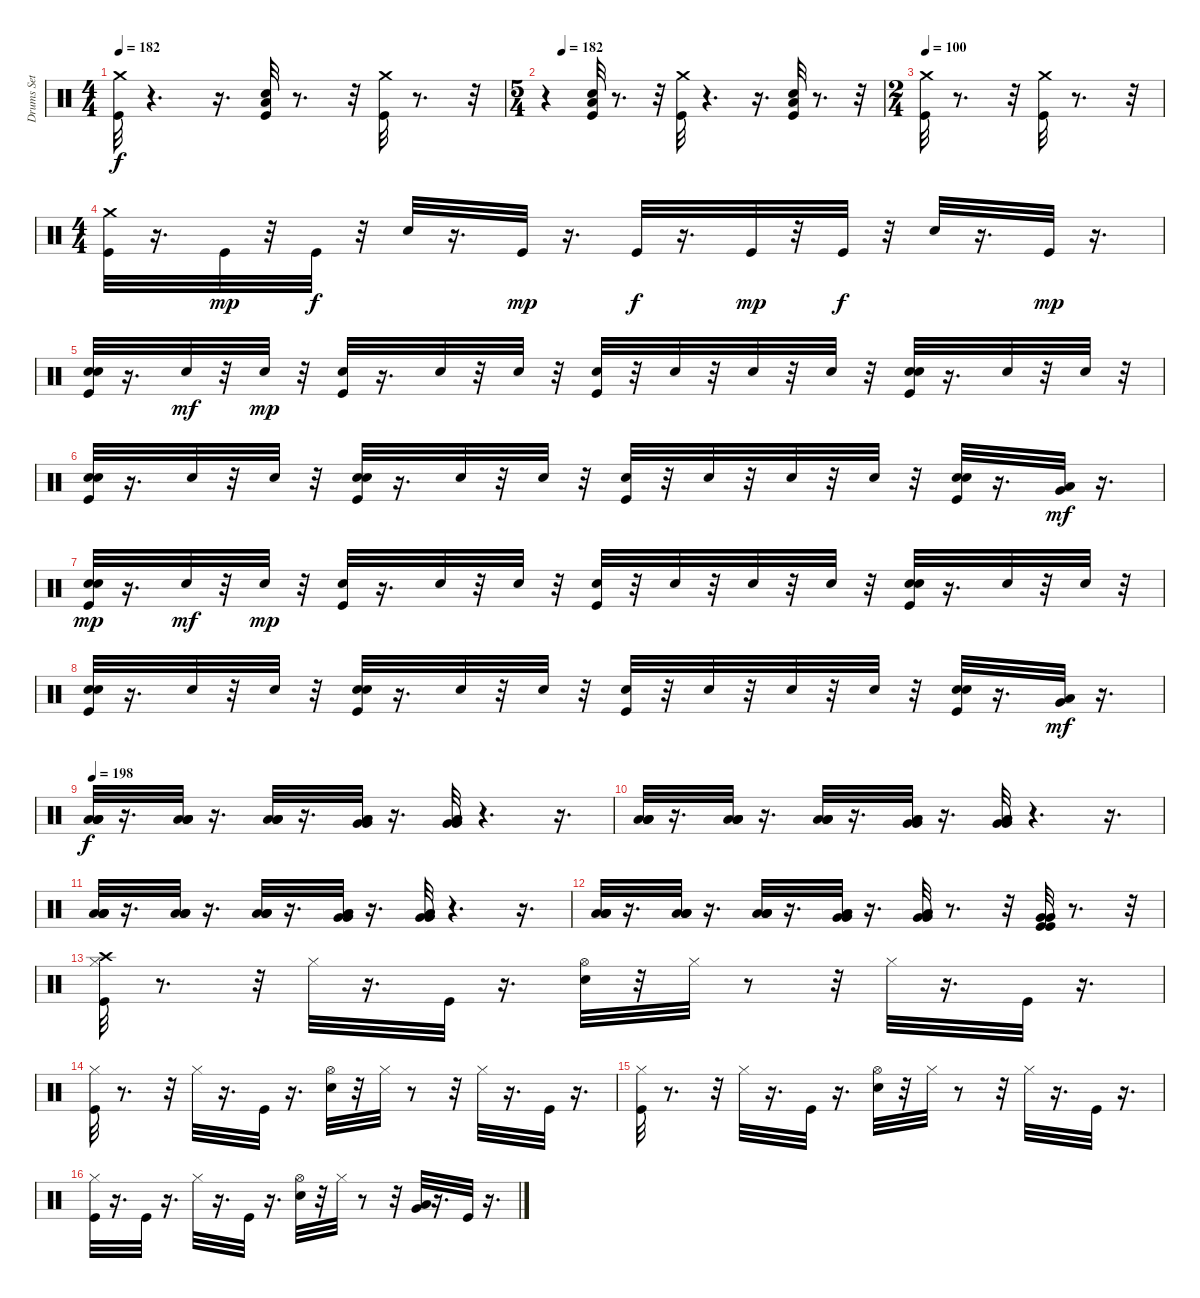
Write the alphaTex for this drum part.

\track ("Drums Set" "Drums Set") {instrument percussion}
\staff {score}
\articulation defaults
\ts (4 4)
\tempo 182
\clef neutral
\ks c
("Kick (hit)" "Crash medium (hit)").32{dy f} r.4{d} r.16{d} ("Low Tom (hit)" "Kick (hit)" "Snare (hit) 2").32 r.8{d} r.32 ("Kick (hit)" "Crash medium (hit)").32 r.8{d} r.32 |
\ts (5 4)
\tempo (182 0.05)
r.4 ("Snare (hit) 2" "Kick (hit)" "Low Tom (hit)").32 r.8{d} r.32 ("Kick (hit)" "Crash medium (hit)").32 r.4{d} r.16{d} ("Kick (hit)" "Snare (hit) 2" "Low Tom (hit)").32 r.8{d} r.32 |
\ts (2 4)
\tempo 100
("Kick (hit)" "Crash medium (hit)").32 r.8{d} r.32 ("Kick (hit)" "Crash medium (hit)").32 r.8{d} r.32 |
\ts (4 4)
("Kick (hit)" "Crash medium (hit)").32 r.16{d} "Kick (hit)".32{dy mp} r.32 "Kick (hit)".32{dy f} r.32 "Snare (hit) 2".32 r.16{d} "Kick (hit)".32{dy mp} r.16{d} "Kick (hit)".32{dy f} r.16{d} "Kick (hit)".32{dy mp} r.32 "Kick (hit)".32{dy f} r.32 "Snare (hit) 2".32 r.16{d} "Kick (hit)".32{dy mp} r.16{d} |
("Kick (hit)" "Snare (hit) 2" "Electric Snare (hit)").32 r.16{d} "Snare (hit) 2".32{dy mf} r.32 "Snare (hit) 2".32{dy mp} r.32 ("Kick (hit)" "Snare (hit) 2").32 r.16{d} "Snare (hit) 2".32 r.32 "Snare (hit) 2".32 r.32 ("Kick (hit)" "Snare (hit) 2").32 r.32 "Snare (hit) 2".32 r.32 "Snare (hit) 2".32 r.32 "Snare (hit) 2".32 r.32 ("Kick (hit)" "Electric Snare (hit)" "Snare (hit) 2").32 r.16{d} "Snare (hit) 2".32 r.32 "Snare (hit) 2".32 r.32 |
("Kick (hit)" "Electric Snare (hit)" "Snare (hit) 2").32 r.16{d} "Snare (hit) 2".32 r.32 "Snare (hit) 2".32 r.32 ("Kick (hit)" "Snare (hit) 2" "Electric Snare (hit)").32 r.16{d} "Snare (hit) 2".32 r.32 "Snare (hit) 2".32 r.32 ("Kick (hit)" "Snare (hit) 2").32 r.32 "Snare (hit) 2".32 r.32 "Snare (hit) 2".32 r.32 "Snare (hit) 2".32 r.32 ("Kick (hit)" "Snare (hit) 2" "Electric Snare (hit)").32 r.16{d} ("Very Low Tom (hit)" "Low Tom (hit)").32{dy mf} r.16{d} |
("Kick (hit)" "Snare (hit) 2" "Electric Snare (hit)").32{dy mp} r.16{d} "Snare (hit) 2".32{dy mf} r.32 "Snare (hit) 2".32{dy mp} r.32 ("Kick (hit)" "Snare (hit) 2").32 r.16{d} "Snare (hit) 2".32 r.32 "Snare (hit) 2".32 r.32 ("Kick (hit)" "Snare (hit) 2").32 r.32 "Snare (hit) 2".32 r.32 "Snare (hit) 2".32 r.32 "Snare (hit) 2".32 r.32 ("Kick (hit)" "Electric Snare (hit)" "Snare (hit) 2").32 r.16{d} "Snare (hit) 2".32 r.32 "Snare (hit) 2".32 r.32 |
("Kick (hit)" "Electric Snare (hit)" "Snare (hit) 2").32 r.16{d} "Snare (hit) 2".32 r.32 "Snare (hit) 2".32 r.32 ("Kick (hit)" "Snare (hit) 2" "Electric Snare (hit)").32 r.16{d} "Snare (hit) 2".32 r.32 "Snare (hit) 2".32 r.32 ("Kick (hit)" "Snare (hit) 2").32 r.32 "Snare (hit) 2".32 r.32 "Snare (hit) 2".32 r.32 "Snare (hit) 2".32 r.32 ("Kick (hit)" "Snare (hit) 2" "Electric Snare (hit)").32 r.16{d} ("Very Low Tom (hit)" "Low Tom (hit)").32{dy mf} r.16{d} |
\tempo 198
("Low Floor Tom (hit)" "Low Tom (hit)" "Low Floor Tom (hit)" "Low Tom (hit)").32{dy f} r.16{d} ("Low Floor Tom (hit)" "Low Tom (hit)" "Low Floor Tom (hit)" "Low Tom (hit)").32 r.16{d} ("Low Floor Tom (hit)" "Low Tom (hit)" "Low Floor Tom (hit)" "Low Tom (hit)").32 r.16{d} ("Low Floor Tom (hit)" "Very Low Tom (hit)" "Low Floor Tom (hit)" "Very Low Tom (hit)").32 r.16{d} ("Low Floor Tom (hit)" "Very Low Tom (hit)" "Low Floor Tom (hit)" "Very Low Tom (hit)").32 r.4{d} r.16{d} |
("Low Floor Tom (hit)" "Low Tom (hit)" "Low Floor Tom (hit)" "Low Tom (hit)").32 r.16{d} ("Low Floor Tom (hit)" "Low Tom (hit)" "Low Floor Tom (hit)" "Low Tom (hit)").32 r.16{d} ("Low Floor Tom (hit)" "Low Tom (hit)" "Low Floor Tom (hit)" "Low Tom (hit)").32 r.16{d} ("Low Floor Tom (hit)" "Very Low Tom (hit)" "Low Floor Tom (hit)" "Very Low Tom (hit)").32 r.16{d} ("Low Floor Tom (hit)" "Very Low Tom (hit)" "Low Floor Tom (hit)" "Very Low Tom (hit)").32 r.4{d} r.16{d} |
("Low Floor Tom (hit)" "Low Tom (hit)" "Low Floor Tom (hit)" "Low Tom (hit)").32 r.16{d} ("Low Floor Tom (hit)" "Low Tom (hit)" "Low Floor Tom (hit)" "Low Tom (hit)").32 r.16{d} ("Low Floor Tom (hit)" "Low Tom (hit)" "Low Floor Tom (hit)" "Low Tom (hit)").32 r.16{d} ("Low Floor Tom (hit)" "Very Low Tom (hit)" "Low Floor Tom (hit)" "Very Low Tom (hit)").32 r.16{d} ("Low Floor Tom (hit)" "Very Low Tom (hit)" "Low Floor Tom (hit)" "Very Low Tom (hit)").32 r.4{d} r.16{d} |
("Low Floor Tom (hit)" "Low Tom (hit)" "Low Floor Tom (hit)" "Low Tom (hit)").32 r.16{d} ("Low Floor Tom (hit)" "Low Tom (hit)" "Low Floor Tom (hit)" "Low Tom (hit)").32 r.16{d} ("Low Floor Tom (hit)" "Low Tom (hit)" "Low Floor Tom (hit)" "Low Tom (hit)").32 r.16{d} ("Low Floor Tom (hit)" "Very Low Tom (hit)" "Low Floor Tom (hit)" "Very Low Tom (hit)").32 r.16{d} ("Low Floor Tom (hit)" "Very Low Tom (hit)" "Low Floor Tom (hit)" "Very Low Tom (hit)").32 r.8{d} r.32 ("Very Low Tom (hit)" "Kick (hit)" "Very Low Tom (hit)" "Kick (hit)").32 r.8{d} r.32 |
("Crash high (hit)" "Hi-Hat (closed)" "Kick (hit)").32 r.8{d} r.32 "Hi-Hat (closed)".32 r.16{d} "Kick (hit)".32 r.16{d} ("Hi-Hat (open)" "Snare (hit) 2").32 r.32 "Hi-Hat (closed)".32 r.8 r.32 "Hi-Hat (closed)".32 r.16{d} "Kick (hit)".32 r.16{d} |
("Hi-Hat (closed)" "Kick (hit)").32 r.8{d} r.32 "Hi-Hat (closed)".32 r.16{d} "Kick (hit)".32 r.16{d} ("Hi-Hat (open)" "Snare (hit) 2").32 r.32 "Hi-Hat (closed)".32 r.8 r.32 "Hi-Hat (closed)".32 r.16{d} "Kick (hit)".32 r.16{d} |
("Kick (hit)" "Hi-Hat (closed)").32 r.8{d} r.32 "Hi-Hat (closed)".32 r.16{d} "Kick (hit)".32 r.16{d} ("Snare (hit) 2" "Hi-Hat (open)").32 r.32 "Hi-Hat (closed)".32 r.8 r.32 "Hi-Hat (closed)".32 r.16{d} "Kick (hit)".32 r.16{d} |
("Hi-Hat (closed)" "Kick (hit)").32 r.16{d} "Kick (hit)".32 r.16{d} "Hi-Hat (closed)".32 r.16{d} "Kick (hit)".32 r.16{d} ("Hi-Hat (open)" "Snare (hit) 2").32 r.32 "Hi-Hat (closed)".32 r.8 r.32 ("Very Low Tom (hit)" "Low Tom (hit)").32 r.16{d} "Kick (hit)".32 r.16{d}
